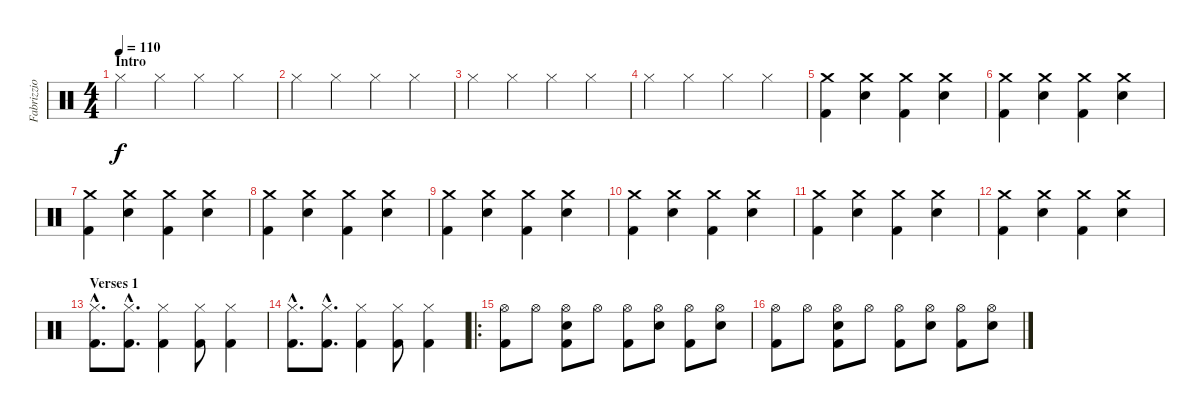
\track ("Fabrizzio Moretti Drums perfomance" "Fabrizzio ") {instrument percussion}
\staff {score}
\articulation defaults
\ts (4 4)
\section ("" "Intro")
\tempo 110
\clef neutral
\ks c "Hi-Hat (closed)".4{dy f} "Hi-Hat (closed)".4 "Hi-Hat (closed)".4 "Hi-Hat (closed)".4
|
"Hi-Hat (closed)".4 "Hi-Hat (closed)".4 "Hi-Hat (closed)".4 "Hi-Hat (closed)".4 |
"Hi-Hat (closed)".4 "Hi-Hat (closed)".4 "Hi-Hat (closed)".4 "Hi-Hat (closed)".4 |
"Hi-Hat (closed)".4 "Hi-Hat (closed)".4 "Hi-Hat (closed)".4 "Hi-Hat (closed)".4 |
("Crash medium (hit)" "Kick (hit) 2").4 ("Crash medium (hit)" "Electric Snare (hit)").4 ("Crash medium (hit)" "Kick (hit) 2").4 ("Crash medium (hit)" "Electric Snare (hit)").4 |
("Crash medium (hit)" "Kick (hit) 2").4 ("Crash medium (hit)" "Electric Snare (hit)").4 ("Crash medium (hit)" "Kick (hit) 2").4 ("Crash medium (hit)" "Electric Snare (hit)").4 |
("Crash medium (hit)" "Kick (hit) 2").4 ("Crash medium (hit)" "Electric Snare (hit)").4 ("Crash medium (hit)" "Kick (hit) 2").4 ("Crash medium (hit)" "Electric Snare (hit)").4 |
("Crash medium (hit)" "Kick (hit) 2").4 ("Crash medium (hit)" "Electric Snare (hit)").4 ("Crash medium (hit)" "Kick (hit) 2").4 ("Crash medium (hit)" "Electric Snare (hit)").4 |
("Crash medium (hit)" "Kick (hit) 2").4 ("Crash medium (hit)" "Electric Snare (hit)").4 ("Crash medium (hit)" "Kick (hit) 2").4 ("Crash medium (hit)" "Electric Snare (hit)").4 |
("Crash medium (hit)" "Kick (hit) 2").4 ("Crash medium (hit)" "Electric Snare (hit)").4 ("Crash medium (hit)" "Kick (hit) 2").4 ("Crash medium (hit)" "Electric Snare (hit)").4 |
("Crash medium (hit)" "Kick (hit) 2").4 ("Crash medium (hit)" "Electric Snare (hit)").4 ("Crash medium (hit)" "Kick (hit) 2").4 ("Crash medium (hit)" "Electric Snare (hit)").4 |
("Crash medium (hit)" "Kick (hit) 2").4 ("Crash medium (hit)" "Electric Snare (hit)").4 ("Crash medium (hit)" "Kick (hit) 2").4 ("Crash medium (hit)" "Electric Snare (hit)").4 |
\section ("" "Verses 1")
("Kick (hit) 2"{hac} "Hi-Hat (closed)"{hac}).8{d} ("Kick (hit) 2"{hac} "Hi-Hat (closed)"{hac}).8{d} ("Kick (hit) 2" "Hi-Hat (closed)").4 ("Kick (hit) 2" "Hi-Hat (closed)").8 ("Kick (hit) 2" "Hi-Hat (closed)").4 |
("Kick (hit) 2"{hac} "Hi-Hat (closed)"{hac}).8{d} ("Kick (hit) 2"{hac} "Hi-Hat (closed)"{hac}).8{d} ("Kick (hit) 2" "Hi-Hat (closed)").4 ("Kick (hit) 2" "Hi-Hat (closed)").8 ("Kick (hit) 2" "Hi-Hat (closed)").4 |
\ro
("Kick (hit) 2" "Hi-Hat (open)").8 "Hi-Hat (open)".8 ("Kick (hit) 2" "Electric Snare (hit)" "Hi-Hat (open)").8 "Hi-Hat (open)".8 ("Kick (hit) 2" "Hi-Hat (open)").8 ("Electric Snare (hit)" "Hi-Hat (open)").8 ("Kick (hit) 2" "Hi-Hat (open)").8 ("Electric Snare (hit)" "Hi-Hat (open)").8 |
("Kick (hit) 2" "Hi-Hat (open)").8 "Hi-Hat (open)".8 ("Kick (hit) 2" "Electric Snare (hit)" "Hi-Hat (open)").8 "Hi-Hat (open)".8 ("Kick (hit) 2" "Hi-Hat (open)").8 ("Electric Snare (hit)" "Hi-Hat (open)").8 ("Kick (hit) 2" "Hi-Hat (open)").8 ("Electric Snare (hit)" "Hi-Hat (open)").8
